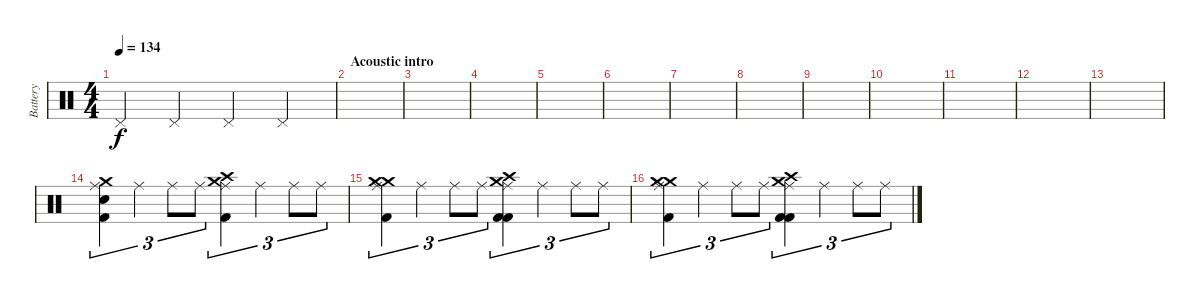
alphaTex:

\track ("Battery" "Battery") {instrument percussion}
\staff {score}
\articulation defaults
\ts (4 4)
\tempo 134
\clef neutral
\ks c "Pedal Hi-Hat (hit)".4{dy f} "Pedal Hi-Hat (hit)".4 "Pedal Hi-Hat (hit)".4 "Pedal Hi-Hat (hit)".4
|
\section ("" "Acoustic intro")
|
|
|
|
|
|
|
|
|
|
|
|
("Kick (hit) 2" "Ride (middle)" "Electric Snare (hit)" "Crash medium (hit)").4{tu (3 2)} "Ride (middle)".4{tu (3 2)} "Ride (middle)".8{tu (3 2)} "Ride (middle)".8{tu (3 2)} ("Crash medium (hit)" "Ride (middle)" "Kick (hit) 2" "Crash high (hit)").4{tu (3 2) balance 10} "Ride (middle)".4{tu (3 2)} "Ride (middle)".8{tu (3 2)} "Ride (middle)".8{tu (3 2)} |
("Crash medium (hit)" "Ride (middle)" "Kick (hit) 2" "Crash medium (hit)").4{tu (3 2)} "Ride (middle)".4{tu (3 2)} "Ride (middle)".8{tu (3 2)} "Ride (middle)".8{tu (3 2)} ("Crash medium (hit)" "Ride (middle)" "Crash high (hit)" "Kick (hit) 2" "Kick (hit) 2").4{tu (3 2)} "Ride (middle)".4{tu (3 2)} "Ride (middle)".8{tu (3 2)} "Ride (middle)".8{tu (3 2)} |
("Crash medium (hit)" "Ride (middle)" "Kick (hit) 2" "Crash medium (hit)").4{tu (3 2)} "Ride (middle)".4{tu (3 2)} "Ride (middle)".8{tu (3 2)} "Ride (middle)".8{tu (3 2)} ("Crash medium (hit)" "Ride (middle)" "Crash high (hit)" "Kick (hit) 2" "Kick (hit) 2").4{tu (3 2)} "Ride (middle)".4{tu (3 2)} "Ride (middle)".8{tu (3 2)} "Ride (middle)".8{tu (3 2)}
